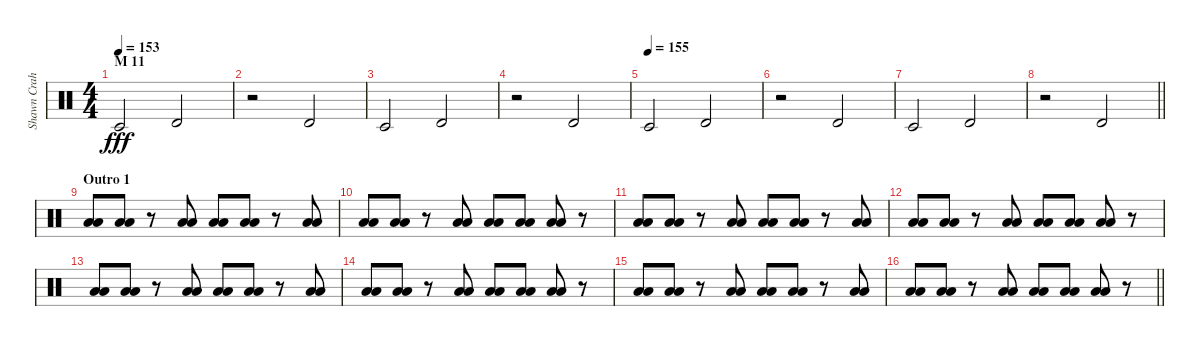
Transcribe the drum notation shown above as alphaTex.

\track ("Shawn Crahan" "Shawn Crah") {instrument percussion}
\staff {score}
\articulation defaults
\ts (4 4)
\section ("" "M 11")
\tempo 153
\clef neutral
\ks c "Timbale low (hit)".2{dy fff} "Timbale high (hit)".2
|
r.2 "Timbale high (hit)".2 |
"Timbale low (hit)".2 "Timbale high (hit)".2 |
r.2 "Timbale high (hit)".2 |
\tempo (155)
"Timbale low (hit)".2 "Timbale high (hit)".2 |
r.2 "Timbale high (hit)".2 |
"Timbale low (hit)".2 "Timbale high (hit)".2 |
\barLineRight lightlight
r.2 "Timbale high (hit)".2 |
\section ("" "Outro 1")
("Low Floor Tom (hit)" "Low Floor Tom (hit)").8 ("Low Floor Tom (hit)" "Low Floor Tom (hit)").8 r.8 ("Low Floor Tom (hit)" "Low Floor Tom (hit)").8 ("Low Floor Tom (hit)" "Low Floor Tom (hit)").8 ("Low Floor Tom (hit)" "Low Floor Tom (hit)").8 r.8 ("Low Floor Tom (hit)" "Low Floor Tom (hit)").8 |
("Low Floor Tom (hit)" "Low Floor Tom (hit)").8 ("Low Floor Tom (hit)" "Low Floor Tom (hit)").8 r.8 ("Low Floor Tom (hit)" "Low Floor Tom (hit)").8 ("Low Floor Tom (hit)" "Low Floor Tom (hit)").8 ("Low Floor Tom (hit)" "Low Floor Tom (hit)").8 ("Low Floor Tom (hit)" "Low Floor Tom (hit)").8 r.8 |
("Low Floor Tom (hit)" "Low Floor Tom (hit)").8 ("Low Floor Tom (hit)" "Low Floor Tom (hit)").8 r.8 ("Low Floor Tom (hit)" "Low Floor Tom (hit)").8 ("Low Floor Tom (hit)" "Low Floor Tom (hit)").8 ("Low Floor Tom (hit)" "Low Floor Tom (hit)").8 r.8 ("Low Floor Tom (hit)" "Low Floor Tom (hit)").8 |
("Low Floor Tom (hit)" "Low Floor Tom (hit)").8 ("Low Floor Tom (hit)" "Low Floor Tom (hit)").8 r.8 ("Low Floor Tom (hit)" "Low Floor Tom (hit)").8 ("Low Floor Tom (hit)" "Low Floor Tom (hit)").8 ("Low Floor Tom (hit)" "Low Floor Tom (hit)").8 ("Low Floor Tom (hit)" "Low Floor Tom (hit)").8 r.8 |
("Low Floor Tom (hit)" "Low Floor Tom (hit)").8 ("Low Floor Tom (hit)" "Low Floor Tom (hit)").8 r.8 ("Low Floor Tom (hit)" "Low Floor Tom (hit)").8 ("Low Floor Tom (hit)" "Low Floor Tom (hit)").8 ("Low Floor Tom (hit)" "Low Floor Tom (hit)").8 r.8 ("Low Floor Tom (hit)" "Low Floor Tom (hit)").8 |
("Low Floor Tom (hit)" "Low Floor Tom (hit)").8 ("Low Floor Tom (hit)" "Low Floor Tom (hit)").8 r.8 ("Low Floor Tom (hit)" "Low Floor Tom (hit)").8 ("Low Floor Tom (hit)" "Low Floor Tom (hit)").8 ("Low Floor Tom (hit)" "Low Floor Tom (hit)").8 ("Low Floor Tom (hit)" "Low Floor Tom (hit)").8 r.8 |
("Low Floor Tom (hit)" "Low Floor Tom (hit)").8 ("Low Floor Tom (hit)" "Low Floor Tom (hit)").8 r.8 ("Low Floor Tom (hit)" "Low Floor Tom (hit)").8 ("Low Floor Tom (hit)" "Low Floor Tom (hit)").8 ("Low Floor Tom (hit)" "Low Floor Tom (hit)").8 r.8 ("Low Floor Tom (hit)" "Low Floor Tom (hit)").8 |
\barLineRight lightlight
("Low Floor Tom (hit)" "Low Floor Tom (hit)").8 ("Low Floor Tom (hit)" "Low Floor Tom (hit)").8 r.8 ("Low Floor Tom (hit)" "Low Floor Tom (hit)").8 ("Low Floor Tom (hit)" "Low Floor Tom (hit)").8 ("Low Floor Tom (hit)" "Low Floor Tom (hit)").8 ("Low Floor Tom (hit)" "Low Floor Tom (hit)").8 r.8
